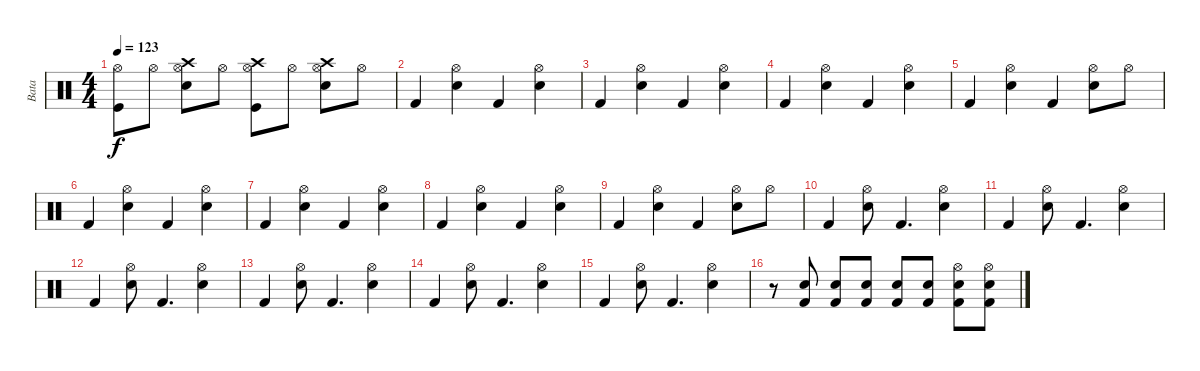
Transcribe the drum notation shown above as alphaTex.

\track ("Bata" "Bata") {instrument percussion}
\staff {score}
\articulation defaults
\ts (4 4)
\tempo 123
\clef neutral
\ks c
("Hi-Hat (open)" "Kick (hit)").8{dy f} "Hi-Hat (open)".8 ("Hi-Hat (open)" "Snare (hit) 2" "Crash high (hit)").8 "Hi-Hat (open)".8 ("Hi-Hat (open)" "Kick (hit)" "Crash high (hit)").8 "Hi-Hat (open)".8 ("Hi-Hat (open)" "Snare (hit) 2" "Crash high (hit)").8 "Hi-Hat (open)".8 |
"Kick (hit) 2".4 ("Hi-Hat (open)" "Snare (hit) 2").4 "Kick (hit) 2".4 ("Hi-Hat (open)" "Snare (hit) 2").4 |
"Kick (hit) 2".4 ("Hi-Hat (open)" "Snare (hit) 2").4 "Kick (hit) 2".4 ("Hi-Hat (open)" "Snare (hit) 2").4 |
"Kick (hit) 2".4 ("Hi-Hat (open)" "Snare (hit) 2").4 "Kick (hit) 2".4 ("Hi-Hat (open)" "Snare (hit) 2").4 |
"Kick (hit) 2".4 ("Hi-Hat (open)" "Snare (hit) 2").4 "Kick (hit) 2".4 ("Hi-Hat (open)" "Snare (hit) 2").8 "Hi-Hat (open)".8 |
"Kick (hit) 2".4 ("Hi-Hat (open)" "Snare (hit) 2").4 "Kick (hit) 2".4 ("Hi-Hat (open)" "Snare (hit) 2").4 |
"Kick (hit) 2".4 ("Hi-Hat (open)" "Snare (hit) 2").4 "Kick (hit) 2".4 ("Hi-Hat (open)" "Snare (hit) 2").4 |
"Kick (hit) 2".4 ("Hi-Hat (open)" "Snare (hit) 2").4 "Kick (hit) 2".4 ("Hi-Hat (open)" "Snare (hit) 2").4 |
"Kick (hit) 2".4 ("Hi-Hat (open)" "Snare (hit) 2").4 "Kick (hit) 2".4 ("Hi-Hat (open)" "Snare (hit) 2").8 "Hi-Hat (open)".8 |
"Kick (hit) 2".4 ("Hi-Hat (open)" "Snare (hit) 2").8 "Kick (hit) 2".4{d} ("Hi-Hat (open)" "Snare (hit) 2").4 |
"Kick (hit) 2".4 ("Hi-Hat (open)" "Snare (hit) 2").8 "Kick (hit) 2".4{d} ("Hi-Hat (open)" "Snare (hit) 2").4 |
"Kick (hit) 2".4 ("Hi-Hat (open)" "Snare (hit) 2").8 "Kick (hit) 2".4{d} ("Hi-Hat (open)" "Snare (hit) 2").4 |
"Kick (hit) 2".4 ("Hi-Hat (open)" "Snare (hit) 2").8 "Kick (hit) 2".4{d} ("Hi-Hat (open)" "Snare (hit) 2").4 |
"Kick (hit) 2".4 ("Hi-Hat (open)" "Snare (hit) 2").8 "Kick (hit) 2".4{d} ("Hi-Hat (open)" "Snare (hit) 2").4 |
"Kick (hit) 2".4 ("Hi-Hat (open)" "Snare (hit) 2").8 "Kick (hit) 2".4{d} ("Hi-Hat (open)" "Snare (hit) 2").4 |
r.8 ("Snare (hit) 2" "Kick (hit) 2").8 ("Snare (hit) 2" "Kick (hit) 2").8 ("Snare (hit) 2" "Kick (hit) 2").8 ("Snare (hit) 2" "Kick (hit) 2").8 ("Snare (hit) 2" "Kick (hit) 2").8 ("Snare (hit) 2" "Kick (hit) 2" "Hi-Hat (open)").8 ("Snare (hit) 2" "Kick (hit) 2" "Hi-Hat (open)").8
